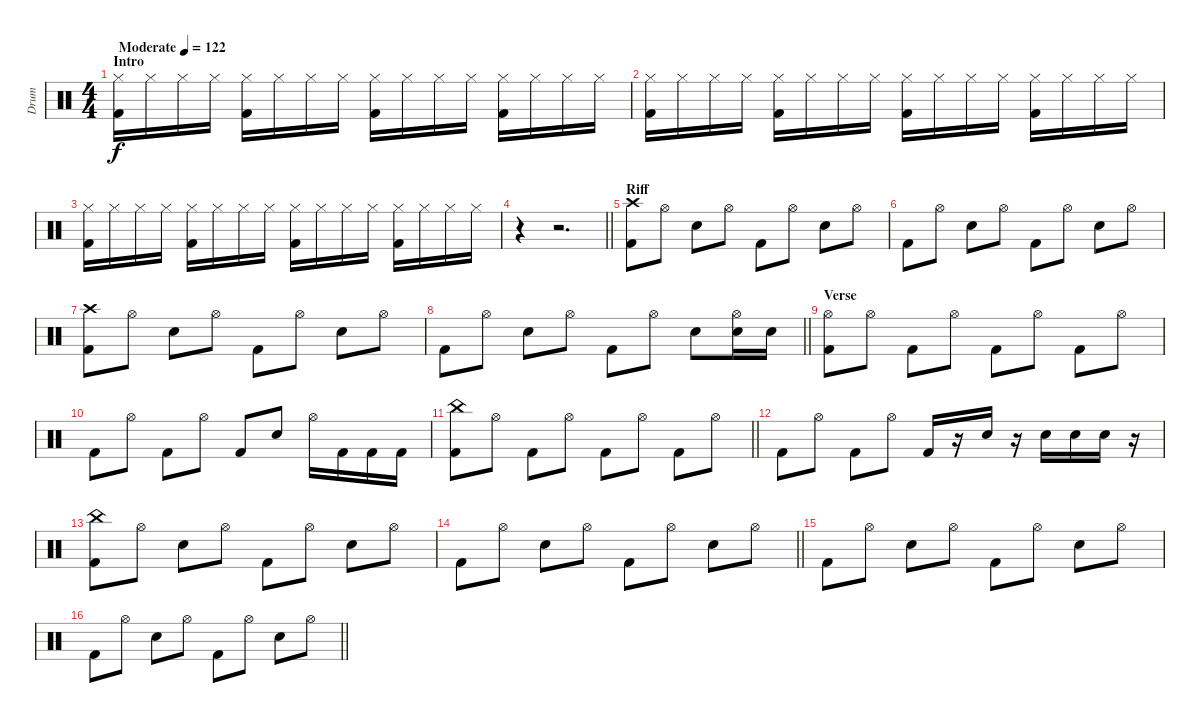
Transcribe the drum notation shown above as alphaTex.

\track ("Drum" "Drum") {instrument percussion}
\staff {score}
\articulation defaults
\ts (4 4)
\section ("" "Intro")
\tempo (122 "Moderate")
\clef neutral
\ks c
("Hi-Hat (closed)" "Kick (hit) 2").16{dy f} "Hi-Hat (closed)".16 "Hi-Hat (closed)".16 "Hi-Hat (closed)".16 ("Hi-Hat (closed)" "Kick (hit) 2").16 "Hi-Hat (closed)".16 "Hi-Hat (closed)".16 "Hi-Hat (closed)".16 ("Hi-Hat (closed)" "Kick (hit) 2").16 "Hi-Hat (closed)".16 "Hi-Hat (closed)".16 "Hi-Hat (closed)".16 ("Hi-Hat (closed)" "Kick (hit) 2").16 "Hi-Hat (closed)".16 "Hi-Hat (closed)".16 "Hi-Hat (closed)".16 |
("Hi-Hat (closed)" "Kick (hit) 2").16 "Hi-Hat (closed)".16 "Hi-Hat (closed)".16 "Hi-Hat (closed)".16 ("Hi-Hat (closed)" "Kick (hit) 2").16 "Hi-Hat (closed)".16 "Hi-Hat (closed)".16 "Hi-Hat (closed)".16 ("Hi-Hat (closed)" "Kick (hit) 2").16 "Hi-Hat (closed)".16 "Hi-Hat (closed)".16 "Hi-Hat (closed)".16 ("Hi-Hat (closed)" "Kick (hit) 2").16 "Hi-Hat (closed)".16 "Hi-Hat (closed)".16 "Hi-Hat (closed)".16 |
("Hi-Hat (closed)" "Kick (hit) 2").16 "Hi-Hat (closed)".16 "Hi-Hat (closed)".16 "Hi-Hat (closed)".16 ("Hi-Hat (closed)" "Kick (hit) 2").16 "Hi-Hat (closed)".16 "Hi-Hat (closed)".16 "Hi-Hat (closed)".16 ("Hi-Hat (closed)" "Kick (hit) 2").16 "Hi-Hat (closed)".16 "Hi-Hat (closed)".16 "Hi-Hat (closed)".16 ("Hi-Hat (closed)" "Kick (hit) 2").16 "Hi-Hat (closed)".16 "Hi-Hat (closed)".16 "Hi-Hat (closed)".16 |
\barLineRight lightlight
r.4 r.2{d} |
\section ("" "Riff")
("Kick (hit) 2" "Crash high (hit)").8 "Hi-Hat (open)".8 "Snare (hit) 2".8 "Hi-Hat (open)".8 "Kick (hit) 2".8 "Hi-Hat (open)".8 "Snare (hit) 2".8 "Hi-Hat (open)".8 |
"Kick (hit) 2".8 "Hi-Hat (open)".8 "Snare (hit) 2".8 "Hi-Hat (open)".8 "Kick (hit) 2".8 "Hi-Hat (open)".8 "Snare (hit) 2".8 "Hi-Hat (open)".8 |
("Kick (hit) 2" "Crash high (hit)").8 "Hi-Hat (open)".8 "Snare (hit) 2".8 "Hi-Hat (open)".8 "Kick (hit) 2".8 "Hi-Hat (open)".8 "Snare (hit) 2".8 "Hi-Hat (open)".8 |
\barLineRight lightlight "Kick (hit) 2".8 "Hi-Hat (open)".8 "Snare (hit) 2".8 "Hi-Hat (open)".8 "Kick (hit) 2".8 "Hi-Hat (open)".8 "Snare (hit) 2".8
("Snare (hit) 2" "Hi-Hat (open)").16 "Snare (hit) 2".16 |
\section ("" "Verse")
("Kick (hit) 2" "Hi-Hat (open)").8 "Hi-Hat (open)".8 "Kick (hit) 2".8 "Hi-Hat (open)".8 "Kick (hit) 2".8 "Hi-Hat (open)".8 "Kick (hit) 2".8 "Hi-Hat (open)".8 |
"Kick (hit) 2".8 "Hi-Hat (open)".8 "Kick (hit) 2".8 "Hi-Hat (open)".8 "Kick (hit) 2".8 "Snare (hit) 2".8 "Hi-Hat (open)".16 "Kick (hit) 2".16 "Kick (hit) 2".16 "Kick (hit) 2".16 |
\barLineRight lightlight
("Kick (hit) 2" "China (hit)").8 "Hi-Hat (open)".8 "Kick (hit) 2".8 "Hi-Hat (open)".8 "Kick (hit) 2".8 "Hi-Hat (open)".8 "Kick (hit) 2".8 "Hi-Hat (open)".8 |
"Kick (hit) 2".8 "Hi-Hat (open)".8 "Kick (hit) 2".8 "Hi-Hat (open)".8 "Kick (hit) 2".16 r.16 "Snare (hit) 2".16 r.16 "Snare (hit) 2".16 "Snare (hit) 2".16 "Snare (hit) 2".16 r.16 |
("Kick (hit) 2" "China (hit)").8 "Hi-Hat (open)".8 "Snare (hit) 2".8 "Hi-Hat (open)".8 "Kick (hit) 2".8 "Hi-Hat (open)".8 "Snare (hit) 2".8 "Hi-Hat (open)".8 |
\barLineRight lightlight "Kick (hit) 2".8 "Hi-Hat (open)".8 "Snare (hit) 2".8 "Hi-Hat (open)".8 "Kick (hit) 2".8 "Hi-Hat (open)".8 "Snare (hit) 2".8 "Hi-Hat (open)".8
|
"Kick (hit) 2".8 "Hi-Hat (open)".8 "Snare (hit) 2".8 "Hi-Hat (open)".8 "Kick (hit) 2".8 "Hi-Hat (open)".8 "Snare (hit) 2".8 "Hi-Hat (open)".8 |
\barLineRight lightlight "Kick (hit) 2".8 "Hi-Hat (open)".8 "Snare (hit) 2".8 "Hi-Hat (open)".8 "Kick (hit) 2".8 "Hi-Hat (open)".8 "Snare (hit) 2".8 "Hi-Hat (open)".8
